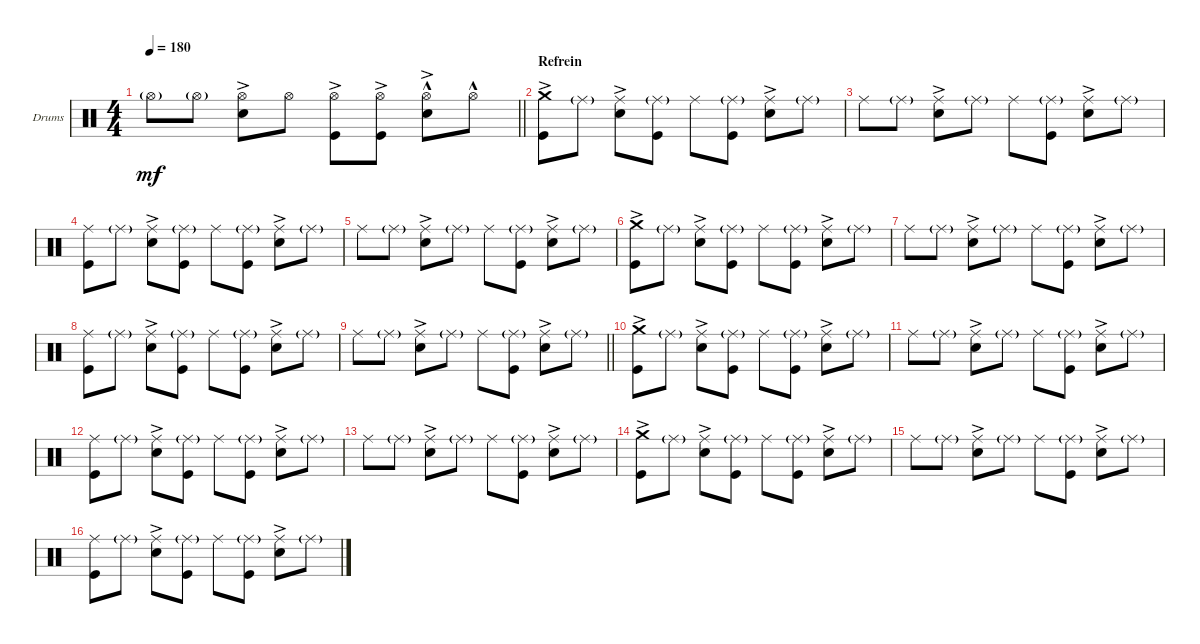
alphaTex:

\defaultSystemsLayout 4
\bracketExtendMode groupsimilarinstruments
\firstSystemTrackNameOrientation horizontal
\otherSystemsTrackNameOrientation horizontal
\track ("Will - Drumkit" "Drums") {instrument percussion}
\staff {score}
\articulation defaults
\ts (4 4)
\tempo 180
\clef neutral
\barLineRight lightlight
\ks c "Hi-Hat (open)"{g}.8{dy mf} "Hi-Hat (open)"{g}.8
("Hi-Hat (open)" "Snare (hit) 2"{ac}).8 "Hi-Hat (open)".8 ("Hi-Hat (open)"{ac} "Kick (hit)").8 ("Hi-Hat (open)"{ac} "Kick (hit)").8 ("Hi-Hat (open)"{hac} "Snare (hit) 2"{ac}).8 "Hi-Hat (open)"{hac}.8 |
\section ("" "Refrein")
("Crash medium (hit)"{ac} "Kick (hit)").8 "Ride (middle)"{g}.8 ("Ride (middle)" "Snare (hit) 2"{ac}).8 ("Ride (middle)"{g} "Kick (hit)").8 "Ride (middle)".8 ("Ride (middle)"{g} "Kick (hit)").8 ("Ride (middle)" "Snare (hit) 2"{ac}).8 "Ride (middle)"{g}.8 |
"Ride (middle)".8 "Ride (middle)"{g}.8 ("Ride (middle)" "Snare (hit) 2"{ac}).8 "Ride (middle)"{g}.8 "Ride (middle)".8 ("Ride (middle)"{g} "Kick (hit)").8 ("Ride (middle)" "Snare (hit) 2"{ac}).8 "Ride (middle)"{g}.8 |
("Kick (hit)" "Ride (middle)").8 "Ride (middle)"{g}.8 ("Ride (middle)" "Snare (hit) 2"{ac}).8 ("Ride (middle)"{g} "Kick (hit)").8 "Ride (middle)".8 ("Ride (middle)"{g} "Kick (hit)").8 ("Ride (middle)" "Snare (hit) 2"{ac}).8 "Ride (middle)"{g}.8 |
"Ride (middle)".8 "Ride (middle)"{g}.8 ("Ride (middle)" "Snare (hit) 2"{ac}).8 "Ride (middle)"{g}.8 "Ride (middle)".8 ("Ride (middle)"{g} "Kick (hit)").8 ("Ride (middle)" "Snare (hit) 2"{ac}).8 "Ride (middle)"{g}.8 |
("Crash medium (hit)"{ac} "Kick (hit)").8 "Ride (middle)"{g}.8 ("Ride (middle)" "Snare (hit) 2"{ac}).8 ("Ride (middle)"{g} "Kick (hit)").8 "Ride (middle)".8 ("Ride (middle)"{g} "Kick (hit)").8 ("Ride (middle)" "Snare (hit) 2"{ac}).8 "Ride (middle)"{g}.8 |
"Ride (middle)".8 "Ride (middle)"{g}.8 ("Ride (middle)" "Snare (hit) 2"{ac}).8 "Ride (middle)"{g}.8 "Ride (middle)".8 ("Ride (middle)"{g} "Kick (hit)").8 ("Ride (middle)" "Snare (hit) 2"{ac}).8 "Ride (middle)"{g}.8 |
("Kick (hit)" "Ride (middle)").8 "Ride (middle)"{g}.8 ("Ride (middle)" "Snare (hit) 2"{ac}).8 ("Ride (middle)"{g} "Kick (hit)").8 "Ride (middle)".8 ("Ride (middle)"{g} "Kick (hit)").8 ("Ride (middle)" "Snare (hit) 2"{ac}).8 "Ride (middle)"{g}.8 |
\barLineRight lightlight "Ride (middle)".8 "Ride (middle)"{g}.8
("Ride (middle)" "Snare (hit) 2"{ac}).8 "Ride (middle)"{g}.8 "Ride (middle)".8 ("Ride (middle)"{g} "Kick (hit)").8 ("Ride (middle)" "Snare (hit) 2"{ac}).8 "Ride (middle)"{g}.8 |
("Crash medium (hit)"{ac} "Kick (hit)").8 "Ride (middle)"{g}.8 ("Ride (middle)" "Snare (hit) 2"{ac}).8 ("Ride (middle)"{g} "Kick (hit)").8 "Ride (middle)".8 ("Ride (middle)"{g} "Kick (hit)").8 ("Ride (middle)" "Snare (hit) 2"{ac}).8 "Ride (middle)"{g}.8 |
"Ride (middle)".8 "Ride (middle)"{g}.8 ("Ride (middle)" "Snare (hit) 2"{ac}).8 "Ride (middle)"{g}.8 "Ride (middle)".8 ("Ride (middle)"{g} "Kick (hit)").8 ("Ride (middle)" "Snare (hit) 2"{ac}).8 "Ride (middle)"{g}.8 |
("Kick (hit)" "Ride (middle)").8 "Ride (middle)"{g}.8 ("Ride (middle)" "Snare (hit) 2"{ac}).8 ("Ride (middle)"{g} "Kick (hit)").8 "Ride (middle)".8 ("Ride (middle)"{g} "Kick (hit)").8 ("Ride (middle)" "Snare (hit) 2"{ac}).8 "Ride (middle)"{g}.8 |
"Ride (middle)".8 "Ride (middle)"{g}.8 ("Ride (middle)" "Snare (hit) 2"{ac}).8 "Ride (middle)"{g}.8 "Ride (middle)".8 ("Ride (middle)"{g} "Kick (hit)").8 ("Ride (middle)" "Snare (hit) 2"{ac}).8 "Ride (middle)"{g}.8 |
("Crash medium (hit)"{ac} "Kick (hit)").8 "Ride (middle)"{g}.8 ("Ride (middle)" "Snare (hit) 2"{ac}).8 ("Ride (middle)"{g} "Kick (hit)").8 "Ride (middle)".8 ("Ride (middle)"{g} "Kick (hit)").8 ("Ride (middle)" "Snare (hit) 2"{ac}).8 "Ride (middle)"{g}.8 |
"Ride (middle)".8 "Ride (middle)"{g}.8 ("Ride (middle)" "Snare (hit) 2"{ac}).8 "Ride (middle)"{g}.8 "Ride (middle)".8 ("Ride (middle)"{g} "Kick (hit)").8 ("Ride (middle)" "Snare (hit) 2"{ac}).8 "Ride (middle)"{g}.8 |
("Kick (hit)" "Ride (middle)").8 "Ride (middle)"{g}.8 ("Ride (middle)" "Snare (hit) 2"{ac}).8 ("Ride (middle)"{g} "Kick (hit)").8 "Ride (middle)".8 ("Ride (middle)"{g} "Kick (hit)").8 ("Ride (middle)" "Snare (hit) 2"{ac}).8 "Ride (middle)"{g}.8
